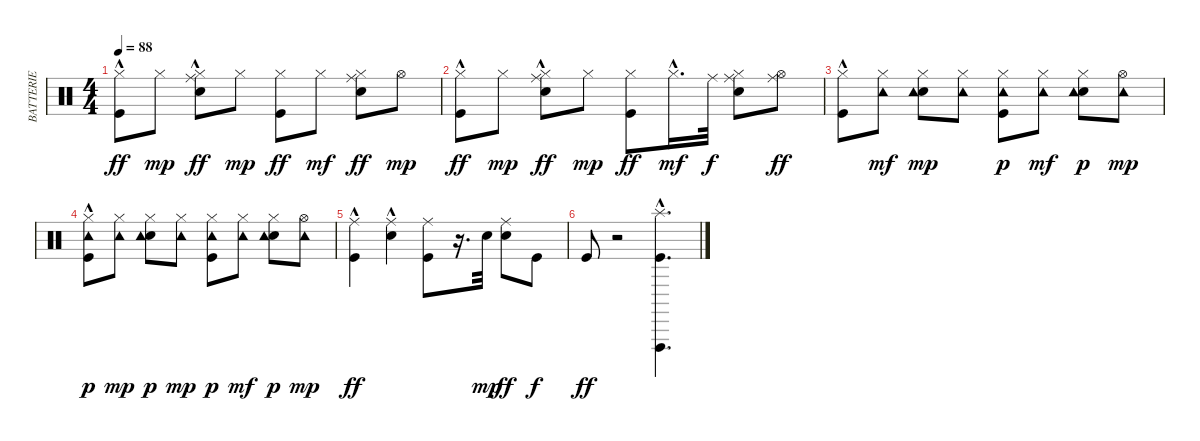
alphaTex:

\track ("BATTERIE" "BATTERIE") {instrument percussion}
\staff {score}
\articulation defaults
\ts (4 4)
\tempo 88
\clef neutral
\ks c
("Kick (hit)"{hac} "Hi-Hat (closed)").8{dy ff} "Hi-Hat (closed)".8{dy mp} ("Electric Snare (hit)" "Hi-Hat (closed)" "Ride (middle)"{hac}).8{dy ff} "Hi-Hat (closed)".8{dy mp} ("Kick (hit)" "Hi-Hat (closed)").8{dy ff} "Hi-Hat (closed)".8{dy mf} ("Electric Snare (hit)" "Hi-Hat (closed)" "Ride (middle)").8{dy ff} "Hi-Hat (open)".8{dy mp} |
("Kick (hit)"{hac} "Hi-Hat (closed)").8{dy ff} "Hi-Hat (closed)".8{dy mp} ("Electric Snare (hit)" "Hi-Hat (closed)" "Ride (middle)"{hac}).8{dy ff} "Hi-Hat (closed)".8{dy mp} ("Kick (hit)" "Hi-Hat (closed)").8{dy ff} "Hi-Hat (closed)"{hac}.16{d dy mf} "Ride (middle)".32{dy f} ("Electric Snare (hit)" "Hi-Hat (closed)" "Ride (middle)").8 ("Hi-Hat (open)" "Ride (middle)").8{dy ff} |
("Kick (hit)"{hac} "Hi-Hat (closed)").8 ("Hi-Hat (closed)" "Tambourine (hit)").8{dy mf} ("Electric Snare (hit)" "Hi-Hat (closed)" "Tambourine (hit)").8{dy mp} ("Hi-Hat (closed)" "Tambourine (hit)").8 ("Kick (hit)" "Hi-Hat (closed)" "Tambourine (hit)").8{dy p} ("Hi-Hat (closed)" "Tambourine (hit)").8{dy mf} ("Electric Snare (hit)" "Hi-Hat (closed)" "Tambourine (hit)").8{dy p} ("Hi-Hat (open)" "Tambourine (hit)").8{dy mp} |
("Kick (hit)"{hac} "Hi-Hat (closed)" "Tambourine (hit)").8{dy p} ("Hi-Hat (closed)" "Tambourine (hit)").8{dy mp} ("Electric Snare (hit)" "Hi-Hat (closed)" "Tambourine (hit)").8{dy p} ("Hi-Hat (closed)" "Tambourine (hit)").8{dy mp} ("Kick (hit)" "Hi-Hat (closed)" "Tambourine (hit)").8{dy p} ("Hi-Hat (closed)" "Tambourine (hit)").8{dy mf} ("Electric Snare (hit)" "Hi-Hat (closed)" "Tambourine (hit)").8{dy p} ("Hi-Hat (open)" "Tambourine (hit)").8{dy mp} |
("Kick (hit)" "Ride (middle)"{hac}).4{dy ff} ("Electric Snare (hit)" "Ride (middle)"{hac}).4 ("Kick (hit)" "Ride (middle)").8 r.16{d} "Electric Snare (hit)".32{dy mp} ("Ride (middle)" "Electric Snare (hit)").8{dy ff} "Kick (hit)".8{dy f} |
"Kick (hit)".8{dy ff} r.2 ("Vibraslap (hit)"{hac} "Kick (hit)"{hac} "Splash (hit)"{hac}).4{d}
